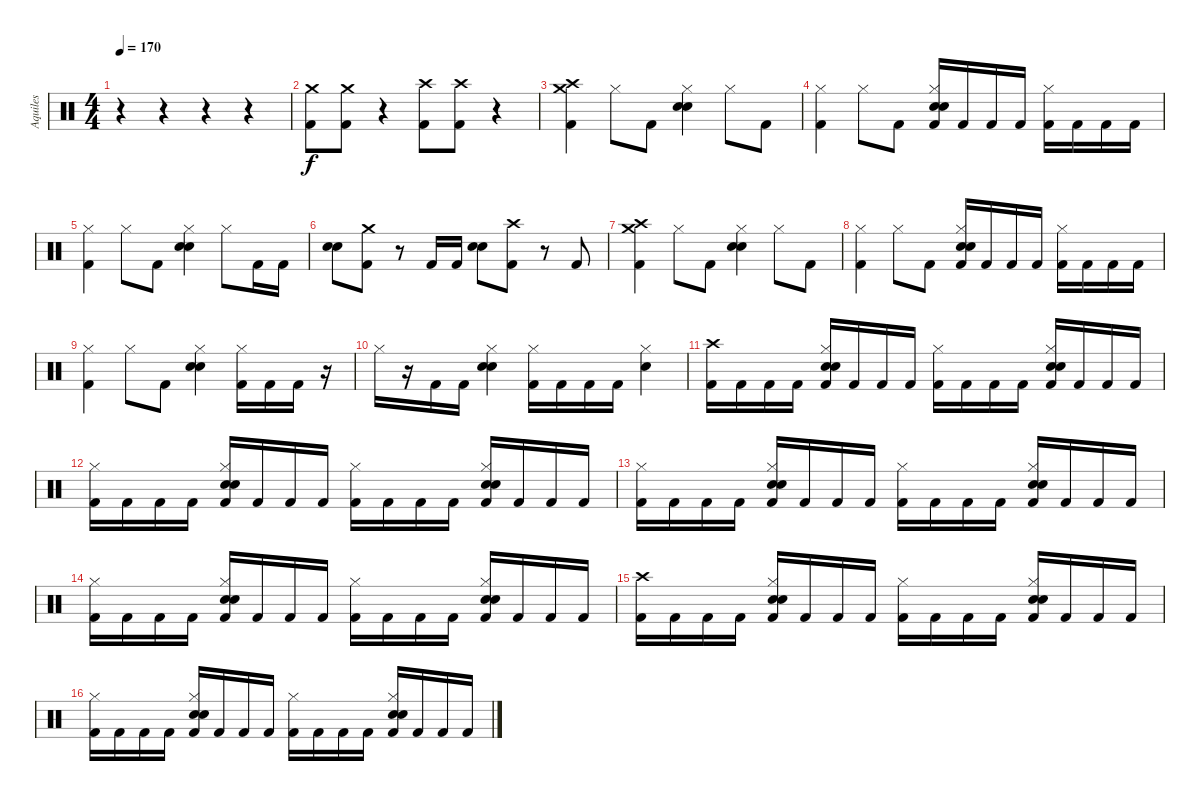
\track ("Aquiles" "Aquiles") {instrument percussion}
\staff {score}
\articulation defaults
\ts (4 4)
\tempo 170
\clef neutral
\ks c
r.4{dy f} r.4 r.4 r.4 |
("Crash medium (hit)" "Kick (hit) 2").8 ("Crash medium (hit)" "Kick (hit) 2").8 r.4 ("Crash high (hit)" "Kick (hit) 2").8 ("Crash high (hit)" "Kick (hit) 2").8 r.4 |
("Crash medium (hit)" "Crash high (hit)" "Kick (hit) 2").4 "Hi-Hat (closed)".8 "Kick (hit) 2".8 ("Hi-Hat (closed)" "Electric Snare (hit)" "Snare (hit) 2").4 "Hi-Hat (closed)".8 "Kick (hit) 2".8 |
("Hi-Hat (closed)" "Kick (hit) 2").4 "Hi-Hat (closed)".8 "Kick (hit) 2".8 ("Hi-Hat (closed)" "Electric Snare (hit)" "Snare (hit) 2" "Kick (hit) 2").16 "Kick (hit) 2".16 "Kick (hit) 2".16 "Kick (hit) 2".16 ("Hi-Hat (closed)" "Kick (hit) 2").16 "Kick (hit) 2".16 "Kick (hit) 2".16 "Kick (hit) 2".16 |
("Hi-Hat (closed)" "Kick (hit) 2").4 "Hi-Hat (closed)".8 "Kick (hit) 2".8 ("Hi-Hat (closed)" "Electric Snare (hit)" "Snare (hit) 2").4 "Hi-Hat (closed)".8 "Kick (hit) 2".16 "Kick (hit) 2".16 |
("Electric Snare (hit)" "Snare (hit) 2").8 ("Crash medium (hit)" "Kick (hit) 2").8 r.8 "Kick (hit) 2".16 "Kick (hit) 2".16 ("Electric Snare (hit)" "Snare (hit) 2").8 ("Crash high (hit)" "Kick (hit) 2").8 r.8 "Kick (hit) 2".8 |
("Crash medium (hit)" "Crash high (hit)" "Kick (hit) 2").4 "Hi-Hat (closed)".8 "Kick (hit) 2".8 ("Hi-Hat (closed)" "Electric Snare (hit)" "Snare (hit) 2").4 "Hi-Hat (closed)".8 "Kick (hit) 2".8 |
("Hi-Hat (closed)" "Kick (hit) 2").4 "Hi-Hat (closed)".8 "Kick (hit) 2".8 ("Hi-Hat (closed)" "Electric Snare (hit)" "Snare (hit) 2" "Kick (hit) 2").16 "Kick (hit) 2".16 "Kick (hit) 2".16 "Kick (hit) 2".16 ("Hi-Hat (closed)" "Kick (hit) 2").16 "Kick (hit) 2".16 "Kick (hit) 2".16 "Kick (hit) 2".16 |
("Hi-Hat (closed)" "Kick (hit) 2").4 "Hi-Hat (closed)".8 "Kick (hit) 2".8 ("Hi-Hat (closed)" "Electric Snare (hit)" "Snare (hit) 2").4 ("Hi-Hat (closed)" "Kick (hit) 2").16 "Kick (hit) 2".16 "Kick (hit) 2".16 r.16 |
"Hi-Hat (closed)".16 r.16 "Kick (hit) 2".16 "Kick (hit) 2".16 ("Hi-Hat (closed)" "Electric Snare (hit)" "Snare (hit) 2").4 ("Hi-Hat (closed)" "Kick (hit) 2").16 "Kick (hit) 2".16 "Kick (hit) 2".16 "Kick (hit) 2".16 ("Hi-Hat (closed)" "Electric Snare (hit)").4 |
("Crash high (hit)" "Kick (hit) 2").16 "Kick (hit) 2".16 "Kick (hit) 2".16 "Kick (hit) 2".16 ("Hi-Hat (closed)" "Electric Snare (hit)" "Snare (hit) 2" "Kick (hit) 2").16 "Kick (hit) 2".16 "Kick (hit) 2".16 "Kick (hit) 2".16 ("Hi-Hat (closed)" "Kick (hit) 2").16 "Kick (hit) 2".16 "Kick (hit) 2".16 "Kick (hit) 2".16 ("Hi-Hat (closed)" "Electric Snare (hit)" "Snare (hit) 2" "Kick (hit) 2").16 "Kick (hit) 2".16 "Kick (hit) 2".16 "Kick (hit) 2".16 |
("Hi-Hat (closed)" "Kick (hit) 2").16 "Kick (hit) 2".16 "Kick (hit) 2".16 "Kick (hit) 2".16 ("Hi-Hat (closed)" "Electric Snare (hit)" "Snare (hit) 2" "Kick (hit) 2").16 "Kick (hit) 2".16 "Kick (hit) 2".16 "Kick (hit) 2".16 ("Hi-Hat (closed)" "Kick (hit) 2").16 "Kick (hit) 2".16 "Kick (hit) 2".16 "Kick (hit) 2".16 ("Hi-Hat (closed)" "Electric Snare (hit)" "Snare (hit) 2" "Kick (hit) 2").16 "Kick (hit) 2".16 "Kick (hit) 2".16 "Kick (hit) 2".16 |
("Hi-Hat (closed)" "Kick (hit) 2").16 "Kick (hit) 2".16 "Kick (hit) 2".16 "Kick (hit) 2".16 ("Hi-Hat (closed)" "Electric Snare (hit)" "Snare (hit) 2" "Kick (hit) 2").16 "Kick (hit) 2".16 "Kick (hit) 2".16 "Kick (hit) 2".16 ("Hi-Hat (closed)" "Kick (hit) 2").16 "Kick (hit) 2".16 "Kick (hit) 2".16 "Kick (hit) 2".16 ("Hi-Hat (closed)" "Electric Snare (hit)" "Snare (hit) 2" "Kick (hit) 2").16 "Kick (hit) 2".16 "Kick (hit) 2".16 "Kick (hit) 2".16 |
("Hi-Hat (closed)" "Kick (hit) 2").16 "Kick (hit) 2".16 "Kick (hit) 2".16 "Kick (hit) 2".16 ("Hi-Hat (closed)" "Electric Snare (hit)" "Snare (hit) 2" "Kick (hit) 2").16 "Kick (hit) 2".16 "Kick (hit) 2".16 "Kick (hit) 2".16 ("Hi-Hat (closed)" "Kick (hit) 2").16 "Kick (hit) 2".16 "Kick (hit) 2".16 "Kick (hit) 2".16 ("Hi-Hat (closed)" "Electric Snare (hit)" "Snare (hit) 2" "Kick (hit) 2").16 "Kick (hit) 2".16 "Kick (hit) 2".16 "Kick (hit) 2".16 |
("Crash high (hit)" "Kick (hit) 2").16 "Kick (hit) 2".16 "Kick (hit) 2".16 "Kick (hit) 2".16 ("Hi-Hat (closed)" "Electric Snare (hit)" "Snare (hit) 2" "Kick (hit) 2").16 "Kick (hit) 2".16 "Kick (hit) 2".16 "Kick (hit) 2".16 ("Hi-Hat (closed)" "Kick (hit) 2").16 "Kick (hit) 2".16 "Kick (hit) 2".16 "Kick (hit) 2".16 ("Hi-Hat (closed)" "Electric Snare (hit)" "Snare (hit) 2" "Kick (hit) 2").16 "Kick (hit) 2".16 "Kick (hit) 2".16 "Kick (hit) 2".16 |
("Hi-Hat (closed)" "Kick (hit) 2").16 "Kick (hit) 2".16 "Kick (hit) 2".16 "Kick (hit) 2".16 ("Hi-Hat (closed)" "Electric Snare (hit)" "Snare (hit) 2" "Kick (hit) 2").16 "Kick (hit) 2".16 "Kick (hit) 2".16 "Kick (hit) 2".16 ("Hi-Hat (closed)" "Kick (hit) 2").16 "Kick (hit) 2".16 "Kick (hit) 2".16 "Kick (hit) 2".16 ("Hi-Hat (closed)" "Electric Snare (hit)" "Snare (hit) 2" "Kick (hit) 2").16 "Kick (hit) 2".16 "Kick (hit) 2".16 "Kick (hit) 2".16
